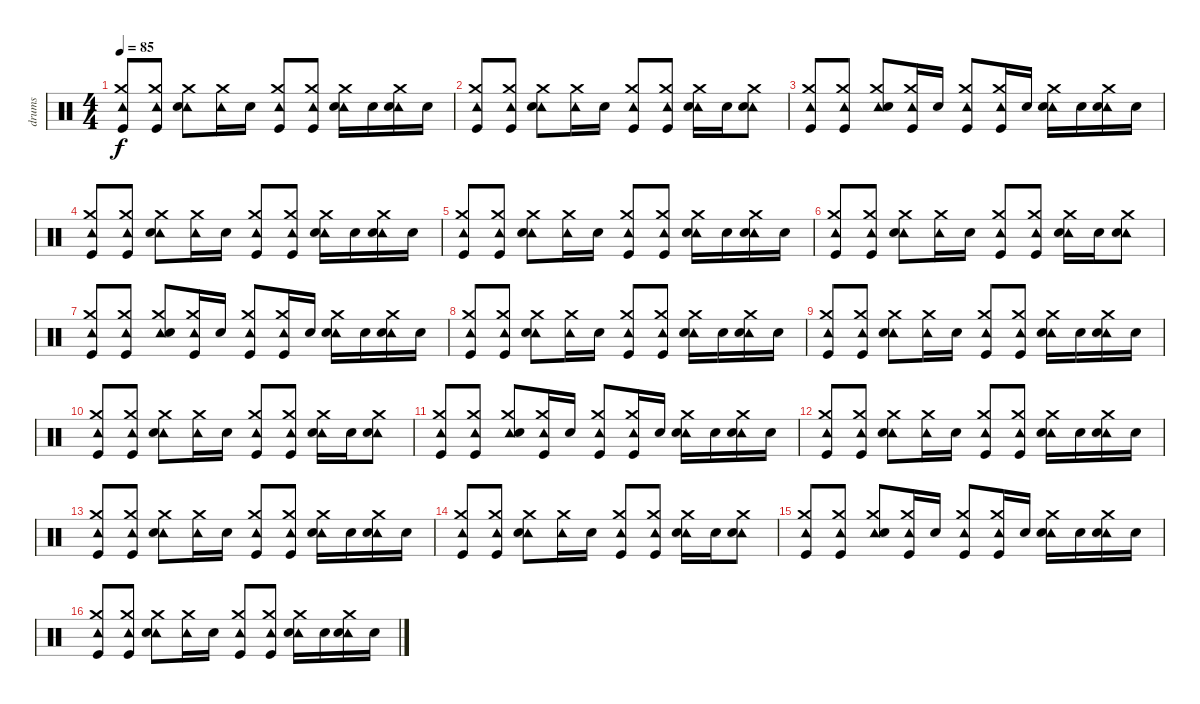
\track ("drums" "drums") {instrument percussion}
\staff {score}
\articulation defaults
\ts (4 4)
\tempo 85
\clef neutral
\ks c
("Tambourine (hit)" "Crash medium (hit)" "Kick (hit)").8{dy f} ("Tambourine (hit)" "Crash medium (hit)" "Kick (hit)").8 ("Tambourine (hit)" "Crash medium (hit)" "Electric Snare (hit)").8 ("Tambourine (hit)" "Crash medium (hit)").16 "Electric Snare (hit)".16 ("Tambourine (hit)" "Crash medium (hit)" "Kick (hit)").8 ("Tambourine (hit)" "Crash medium (hit)" "Kick (hit)").8 ("Tambourine (hit)" "Crash medium (hit)" "Electric Snare (hit)").16 "Electric Snare (hit)".16 ("Tambourine (hit)" "Crash medium (hit)" "Electric Snare (hit)").16 "Electric Snare (hit)".16 |
("Tambourine (hit)" "Crash medium (hit)" "Kick (hit)").8 ("Tambourine (hit)" "Crash medium (hit)" "Kick (hit)").8 ("Tambourine (hit)" "Crash medium (hit)" "Electric Snare (hit)").8 ("Tambourine (hit)" "Crash medium (hit)").16 "Electric Snare (hit)".16 ("Tambourine (hit)" "Crash medium (hit)" "Kick (hit)").8 ("Tambourine (hit)" "Crash medium (hit)" "Kick (hit)").8 ("Tambourine (hit)" "Crash medium (hit)" "Electric Snare (hit)").16 "Electric Snare (hit)".16 ("Tambourine (hit)" "Crash medium (hit)" "Electric Snare (hit)").8 |
("Tambourine (hit)" "Crash medium (hit)" "Kick (hit)").8 ("Tambourine (hit)" "Crash medium (hit)" "Kick (hit)").8 ("Tambourine (hit)" "Crash medium (hit)" "Electric Snare (hit)").8 ("Tambourine (hit)" "Crash medium (hit)" "Kick (hit)").16 "Electric Snare (hit)".16 ("Tambourine (hit)" "Crash medium (hit)" "Kick (hit)").8 ("Tambourine (hit)" "Crash medium (hit)" "Kick (hit)").16 "Electric Snare (hit)".16 ("Tambourine (hit)" "Crash medium (hit)" "Electric Snare (hit)").16 "Electric Snare (hit)".16 ("Tambourine (hit)" "Crash medium (hit)" "Electric Snare (hit)").16 "Electric Snare (hit)".16 |
\section ("" "")
("Tambourine (hit)" "Crash medium (hit)" "Kick (hit)").8 ("Tambourine (hit)" "Crash medium (hit)" "Kick (hit)").8 ("Tambourine (hit)" "Crash medium (hit)" "Electric Snare (hit)").8 ("Tambourine (hit)" "Crash medium (hit)").16 "Electric Snare (hit)".16 ("Tambourine (hit)" "Crash medium (hit)" "Kick (hit)").8 ("Tambourine (hit)" "Crash medium (hit)" "Kick (hit)").8 ("Tambourine (hit)" "Crash medium (hit)" "Electric Snare (hit)").16 "Electric Snare (hit)".16 ("Tambourine (hit)" "Crash medium (hit)" "Electric Snare (hit)").16 "Electric Snare (hit)".16 |
("Tambourine (hit)" "Crash medium (hit)" "Kick (hit)").8 ("Tambourine (hit)" "Crash medium (hit)" "Kick (hit)").8 ("Tambourine (hit)" "Crash medium (hit)" "Electric Snare (hit)").8 ("Tambourine (hit)" "Crash medium (hit)").16 "Electric Snare (hit)".16 ("Tambourine (hit)" "Crash medium (hit)" "Kick (hit)").8 ("Tambourine (hit)" "Crash medium (hit)" "Kick (hit)").8 ("Tambourine (hit)" "Crash medium (hit)" "Electric Snare (hit)").16 "Electric Snare (hit)".16 ("Tambourine (hit)" "Crash medium (hit)" "Electric Snare (hit)").16 "Electric Snare (hit)".16 |
("Tambourine (hit)" "Crash medium (hit)" "Kick (hit)").8 ("Tambourine (hit)" "Crash medium (hit)" "Kick (hit)").8 ("Tambourine (hit)" "Crash medium (hit)" "Electric Snare (hit)").8 ("Tambourine (hit)" "Crash medium (hit)").16 "Electric Snare (hit)".16 ("Tambourine (hit)" "Crash medium (hit)" "Kick (hit)").8 ("Tambourine (hit)" "Crash medium (hit)" "Kick (hit)").8 ("Tambourine (hit)" "Crash medium (hit)" "Electric Snare (hit)").16 "Electric Snare (hit)".16 ("Tambourine (hit)" "Crash medium (hit)" "Electric Snare (hit)").8 |
("Tambourine (hit)" "Crash medium (hit)" "Kick (hit)").8 ("Tambourine (hit)" "Crash medium (hit)" "Kick (hit)").8 ("Tambourine (hit)" "Crash medium (hit)" "Electric Snare (hit)").8 ("Tambourine (hit)" "Crash medium (hit)" "Kick (hit)").16 "Electric Snare (hit)".16 ("Tambourine (hit)" "Crash medium (hit)" "Kick (hit)").8 ("Tambourine (hit)" "Crash medium (hit)" "Kick (hit)").16 "Electric Snare (hit)".16 ("Tambourine (hit)" "Crash medium (hit)" "Electric Snare (hit)").16 "Electric Snare (hit)".16 ("Tambourine (hit)" "Crash medium (hit)" "Electric Snare (hit)").16 "Electric Snare (hit)".16 |
("Tambourine (hit)" "Crash medium (hit)" "Kick (hit)").8 ("Tambourine (hit)" "Crash medium (hit)" "Kick (hit)").8 ("Tambourine (hit)" "Crash medium (hit)" "Electric Snare (hit)").8 ("Tambourine (hit)" "Crash medium (hit)").16 "Electric Snare (hit)".16 ("Tambourine (hit)" "Crash medium (hit)" "Kick (hit)").8 ("Tambourine (hit)" "Crash medium (hit)" "Kick (hit)").8 ("Tambourine (hit)" "Crash medium (hit)" "Electric Snare (hit)").16 "Electric Snare (hit)".16 ("Tambourine (hit)" "Crash medium (hit)" "Electric Snare (hit)").16 "Electric Snare (hit)".16 |
("Tambourine (hit)" "Crash medium (hit)" "Kick (hit)").8 ("Tambourine (hit)" "Crash medium (hit)" "Kick (hit)").8 ("Tambourine (hit)" "Crash medium (hit)" "Electric Snare (hit)").8 ("Tambourine (hit)" "Crash medium (hit)").16 "Electric Snare (hit)".16 ("Tambourine (hit)" "Crash medium (hit)" "Kick (hit)").8 ("Tambourine (hit)" "Crash medium (hit)" "Kick (hit)").8 ("Tambourine (hit)" "Crash medium (hit)" "Electric Snare (hit)").16 "Electric Snare (hit)".16 ("Tambourine (hit)" "Crash medium (hit)" "Electric Snare (hit)").16 "Electric Snare (hit)".16 |
("Tambourine (hit)" "Crash medium (hit)" "Kick (hit)").8 ("Tambourine (hit)" "Crash medium (hit)" "Kick (hit)").8 ("Tambourine (hit)" "Crash medium (hit)" "Electric Snare (hit)").8 ("Tambourine (hit)" "Crash medium (hit)").16 "Electric Snare (hit)".16 ("Tambourine (hit)" "Crash medium (hit)" "Kick (hit)").8 ("Tambourine (hit)" "Crash medium (hit)" "Kick (hit)").8 ("Tambourine (hit)" "Crash medium (hit)" "Electric Snare (hit)").16 "Electric Snare (hit)".16 ("Tambourine (hit)" "Crash medium (hit)" "Electric Snare (hit)").8 |
("Tambourine (hit)" "Crash medium (hit)" "Kick (hit)").8 ("Tambourine (hit)" "Crash medium (hit)" "Kick (hit)").8 ("Tambourine (hit)" "Crash medium (hit)" "Electric Snare (hit)").8 ("Tambourine (hit)" "Crash medium (hit)" "Kick (hit)").16 "Electric Snare (hit)".16 ("Tambourine (hit)" "Crash medium (hit)" "Kick (hit)").8 ("Tambourine (hit)" "Crash medium (hit)" "Kick (hit)").16 "Electric Snare (hit)".16 ("Tambourine (hit)" "Crash medium (hit)" "Electric Snare (hit)").16 "Electric Snare (hit)".16 ("Tambourine (hit)" "Crash medium (hit)" "Electric Snare (hit)").16 "Electric Snare (hit)".16 |
("Tambourine (hit)" "Crash medium (hit)" "Kick (hit)").8 ("Tambourine (hit)" "Crash medium (hit)" "Kick (hit)").8 ("Tambourine (hit)" "Crash medium (hit)" "Electric Snare (hit)").8 ("Tambourine (hit)" "Crash medium (hit)").16 "Electric Snare (hit)".16 ("Tambourine (hit)" "Crash medium (hit)" "Kick (hit)").8 ("Tambourine (hit)" "Crash medium (hit)" "Kick (hit)").8 ("Tambourine (hit)" "Crash medium (hit)" "Electric Snare (hit)").16 "Electric Snare (hit)".16 ("Tambourine (hit)" "Crash medium (hit)" "Electric Snare (hit)").16 "Electric Snare (hit)".16 |
("Tambourine (hit)" "Crash medium (hit)" "Kick (hit)").8 ("Tambourine (hit)" "Crash medium (hit)" "Kick (hit)").8 ("Tambourine (hit)" "Crash medium (hit)" "Electric Snare (hit)").8 ("Tambourine (hit)" "Crash medium (hit)").16 "Electric Snare (hit)".16 ("Tambourine (hit)" "Crash medium (hit)" "Kick (hit)").8 ("Tambourine (hit)" "Crash medium (hit)" "Kick (hit)").8 ("Tambourine (hit)" "Crash medium (hit)" "Electric Snare (hit)").16 "Electric Snare (hit)".16 ("Tambourine (hit)" "Crash medium (hit)" "Electric Snare (hit)").16 "Electric Snare (hit)".16 |
("Tambourine (hit)" "Crash medium (hit)" "Kick (hit)").8 ("Tambourine (hit)" "Crash medium (hit)" "Kick (hit)").8 ("Tambourine (hit)" "Crash medium (hit)" "Electric Snare (hit)").8 ("Tambourine (hit)" "Crash medium (hit)").16 "Electric Snare (hit)".16 ("Tambourine (hit)" "Crash medium (hit)" "Kick (hit)").8 ("Tambourine (hit)" "Crash medium (hit)" "Kick (hit)").8 ("Tambourine (hit)" "Crash medium (hit)" "Electric Snare (hit)").16 "Electric Snare (hit)".16 ("Tambourine (hit)" "Crash medium (hit)" "Electric Snare (hit)").8 |
("Tambourine (hit)" "Crash medium (hit)" "Kick (hit)").8 ("Tambourine (hit)" "Crash medium (hit)" "Kick (hit)").8 ("Tambourine (hit)" "Crash medium (hit)" "Electric Snare (hit)").8 ("Tambourine (hit)" "Crash medium (hit)" "Kick (hit)").16 "Electric Snare (hit)".16 ("Tambourine (hit)" "Crash medium (hit)" "Kick (hit)").8 ("Tambourine (hit)" "Crash medium (hit)" "Kick (hit)").16 "Electric Snare (hit)".16 ("Tambourine (hit)" "Crash medium (hit)" "Electric Snare (hit)").16 "Electric Snare (hit)".16 ("Tambourine (hit)" "Crash medium (hit)" "Electric Snare (hit)").16 "Electric Snare (hit)".16 |
("Tambourine (hit)" "Crash medium (hit)" "Kick (hit)").8 ("Tambourine (hit)" "Crash medium (hit)" "Kick (hit)").8 ("Tambourine (hit)" "Crash medium (hit)" "Electric Snare (hit)").8 ("Tambourine (hit)" "Crash medium (hit)").16 "Electric Snare (hit)".16 ("Tambourine (hit)" "Crash medium (hit)" "Kick (hit)").8 ("Tambourine (hit)" "Crash medium (hit)" "Kick (hit)").8 ("Tambourine (hit)" "Crash medium (hit)" "Electric Snare (hit)").16 "Electric Snare (hit)".16 ("Tambourine (hit)" "Crash medium (hit)" "Electric Snare (hit)").16 "Electric Snare (hit)".16
